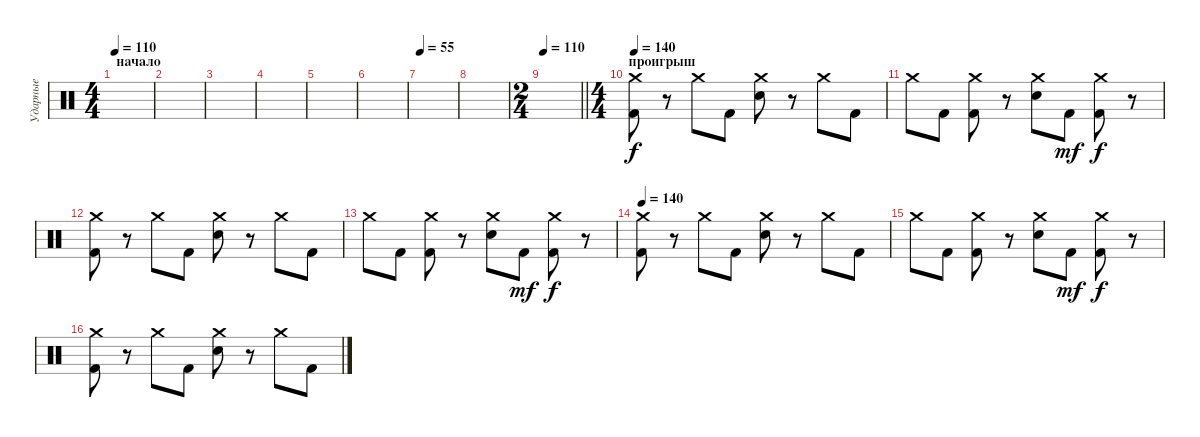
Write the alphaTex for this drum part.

\track ("Ударные" "Ударные") {instrument percussion}
\staff {score}
\articulation defaults
\ts (4 4)
\section ("" "начало")
\tempo 110
\clef neutral
\ks c
|
|
|
|
|
|
\tempo 55
|
|
\ts (2 4)
\tempo 110
\barLineRight lightlight
|
\ts (4 4)
\section ("" "проигрыш")
\tempo 140
("Crash medium (hit)" "Kick (hit) 2").8 r.8 "Crash medium (hit)".8 "Kick (hit) 2".8 ("Crash medium (hit)" "Snare (hit) 2").8 r.8 "Crash medium (hit)".8 "Kick (hit) 2".8 |
"Crash medium (hit)".8 "Kick (hit) 2".8 ("Crash medium (hit)" "Kick (hit) 2").8 r.8 ("Crash medium (hit)" "Snare (hit) 2").8 "Kick (hit) 2".8{dy mf} ("Crash medium (hit)" "Kick (hit) 2").8{dy f} r.8 |
("Crash medium (hit)" "Kick (hit) 2").8 r.8 "Crash medium (hit)".8 "Kick (hit) 2".8 ("Crash medium (hit)" "Snare (hit) 2").8 r.8 "Crash medium (hit)".8 "Kick (hit) 2".8 |
"Crash medium (hit)".8 "Kick (hit) 2".8 ("Crash medium (hit)" "Kick (hit) 2").8 r.8 ("Crash medium (hit)" "Snare (hit) 2").8 "Kick (hit) 2".8{dy mf} ("Crash medium (hit)" "Kick (hit) 2").8{dy f} r.8 |
\tempo 140
("Crash medium (hit)" "Kick (hit) 2").8 r.8 "Crash medium (hit)".8 "Kick (hit) 2".8 ("Crash medium (hit)" "Snare (hit) 2").8 r.8 "Crash medium (hit)".8 "Kick (hit) 2".8 |
"Crash medium (hit)".8 "Kick (hit) 2".8 ("Crash medium (hit)" "Kick (hit) 2").8 r.8 ("Crash medium (hit)" "Snare (hit) 2").8 "Kick (hit) 2".8{dy mf} ("Crash medium (hit)" "Kick (hit) 2").8{dy f} r.8 |
("Crash medium (hit)" "Kick (hit) 2").8 r.8 "Crash medium (hit)".8 "Kick (hit) 2".8 ("Crash medium (hit)" "Snare (hit) 2").8 r.8 "Crash medium (hit)".8 "Kick (hit) 2".8
